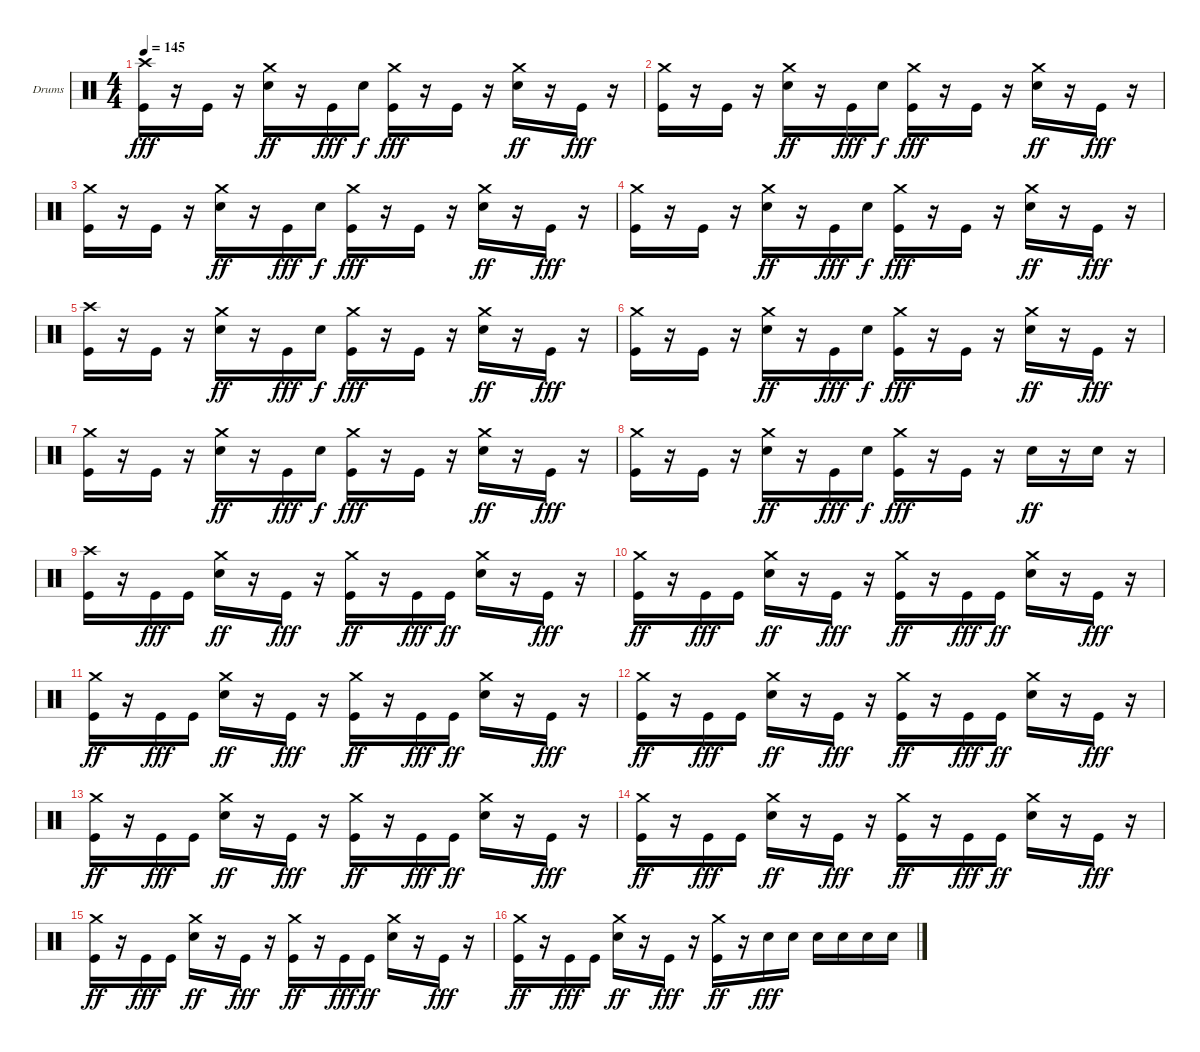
\defaultSystemsLayout 4
\bracketExtendMode groupsimilarinstruments
\firstSystemTrackNameOrientation horizontal
\otherSystemsTrackNameOrientation horizontal
\track ("Drumkit" "Drums") {instrument percussion}
\staff {score}
\articulation defaults
\ts (4 4)
\tempo 145
\clef neutral
\scale
0.333333
\ks c
("Kick (hit)" "Crash high (hit)").16{dy fff} r.16 "Kick (hit)".16 r.16 ("Snare (hit) 2" "Crash medium (hit)").16{dy ff} r.16 "Kick (hit)".16{dy fff} "Snare (hit) 2".16{dy f} ("Kick (hit)" "Crash medium (hit)").16{dy fff} r.16 "Kick (hit)".16 r.16 ("Snare (hit) 2" "Crash medium (hit)").16{dy ff} r.16 "Kick (hit)".16{dy fff} r.16 |
\scale
0.333333 ("Kick (hit)" "Crash medium (hit)").16 r.16 "Kick (hit)".16 r.16 ("Snare (hit) 2" "Crash medium (hit)").16{dy ff} r.16 "Kick (hit)".16{dy fff} "Snare (hit) 2".16{dy f} ("Kick (hit)" "Crash medium (hit)").16{dy fff} r.16 "Kick (hit)".16 r.16 ("Snare (hit) 2" "Crash medium (hit)").16{dy ff} r.16 "Kick (hit)".16{dy fff} r.16 |
\scale
0.333333 ("Kick (hit)" "Crash medium (hit)").16 r.16 "Kick (hit)".16 r.16 ("Snare (hit) 2" "Crash medium (hit)").16{dy ff} r.16 "Kick (hit)".16{dy fff} "Snare (hit) 2".16{dy f} ("Kick (hit)" "Crash medium (hit)").16{dy fff} r.16 "Kick (hit)".16 r.16 ("Snare (hit) 2" "Crash medium (hit)").16{dy ff} r.16 "Kick (hit)".16{dy fff} r.16 |
\scale
0.333333 ("Kick (hit)" "Crash medium (hit)").16 r.16 "Kick (hit)".16 r.16 ("Snare (hit) 2" "Crash medium (hit)").16{dy ff} r.16 "Kick (hit)".16{dy fff} "Snare (hit) 2".16{dy f} ("Kick (hit)" "Crash medium (hit)").16{dy fff} r.16 "Kick (hit)".16 r.16 ("Snare (hit) 2" "Crash medium (hit)").16{dy ff} r.16 "Kick (hit)".16{dy fff} r.16 |
\scale
0.333333 ("Kick (hit)" "Crash high (hit)").16 r.16 "Kick (hit)".16 r.16 ("Snare (hit) 2" "Crash medium (hit)").16{dy ff} r.16 "Kick (hit)".16{dy fff} "Snare (hit) 2".16{dy f} ("Kick (hit)" "Crash medium (hit)").16{dy fff} r.16 "Kick (hit)".16 r.16 ("Snare (hit) 2" "Crash medium (hit)").16{dy ff} r.16 "Kick (hit)".16{dy fff} r.16 |
\scale
0.333333 ("Kick (hit)" "Crash medium (hit)").16 r.16 "Kick (hit)".16 r.16 ("Snare (hit) 2" "Crash medium (hit)").16{dy ff} r.16 "Kick (hit)".16{dy fff} "Snare (hit) 2".16{dy f} ("Kick (hit)" "Crash medium (hit)").16{dy fff} r.16 "Kick (hit)".16 r.16 ("Snare (hit) 2" "Crash medium (hit)").16{dy ff} r.16 "Kick (hit)".16{dy fff} r.16 |
\scale
0.333333 ("Kick (hit)" "Crash medium (hit)").16 r.16 "Kick (hit)".16 r.16 ("Snare (hit) 2" "Crash medium (hit)").16{dy ff} r.16 "Kick (hit)".16{dy fff} "Snare (hit) 2".16{dy f} ("Kick (hit)" "Crash medium (hit)").16{dy fff} r.16 "Kick (hit)".16 r.16 ("Snare (hit) 2" "Crash medium (hit)").16{dy ff} r.16 "Kick (hit)".16{dy fff} r.16 |
\scale
0.333333 ("Kick (hit)" "Crash medium (hit)").16 r.16 "Kick (hit)".16 r.16 ("Snare (hit) 2" "Crash medium (hit)").16{dy ff} r.16 "Kick (hit)".16{dy fff} "Snare (hit) 2".16{dy f} ("Kick (hit)" "Crash medium (hit)").16{dy fff} r.16 "Kick (hit)".16 r.16 "Snare (hit) 2".16{dy ff} r.16 "Snare (hit) 2".16 r.16 |
\scale
0.333333 ("Crash high (hit)" "Kick (hit)").16 r.16 "Kick (hit)".16{dy fff} "Kick (hit)".16 ("Crash medium (hit)" "Snare (hit) 2").16{dy ff} r.16 "Kick (hit)".16{dy fff} r.16 ("Crash medium (hit)" "Kick (hit)").16{dy ff} r.16 "Kick (hit)".16{dy fff} "Kick (hit)".16{dy ff} ("Crash medium (hit)" "Snare (hit) 2").16 r.16 "Kick (hit)".16{dy fff} r.16 |
\scale
0.333333 ("Crash medium (hit)" "Kick (hit)").16{dy ff} r.16 "Kick (hit)".16{dy fff} "Kick (hit)".16 ("Crash medium (hit)" "Snare (hit) 2").16{dy ff} r.16 "Kick (hit)".16{dy fff} r.16 ("Crash medium (hit)" "Kick (hit)").16{dy ff} r.16 "Kick (hit)".16{dy fff} "Kick (hit)".16{dy ff} ("Crash medium (hit)" "Snare (hit) 2").16 r.16 "Kick (hit)".16{dy fff} r.16 |
\scale
0.333333 ("Crash medium (hit)" "Kick (hit)").16{dy ff} r.16 "Kick (hit)".16{dy fff} "Kick (hit)".16 ("Crash medium (hit)" "Snare (hit) 2").16{dy ff} r.16 "Kick (hit)".16{dy fff} r.16 ("Crash medium (hit)" "Kick (hit)").16{dy ff} r.16 "Kick (hit)".16{dy fff} "Kick (hit)".16{dy ff} ("Crash medium (hit)" "Snare (hit) 2").16 r.16 "Kick (hit)".16{dy fff} r.16 |
\scale
0.333333 ("Crash medium (hit)" "Kick (hit)").16{dy ff} r.16 "Kick (hit)".16{dy fff} "Kick (hit)".16 ("Crash medium (hit)" "Snare (hit) 2").16{dy ff} r.16 "Kick (hit)".16{dy fff} r.16 ("Crash medium (hit)" "Kick (hit)").16{dy ff} r.16 "Kick (hit)".16{dy fff} "Kick (hit)".16{dy ff} ("Crash medium (hit)" "Snare (hit) 2").16 r.16 "Kick (hit)".16{dy fff} r.16 |
\scale
0.333333 ("Crash medium (hit)" "Kick (hit)").16{dy ff} r.16 "Kick (hit)".16{dy fff} "Kick (hit)".16 ("Crash medium (hit)" "Snare (hit) 2").16{dy ff} r.16 "Kick (hit)".16{dy fff} r.16 ("Crash medium (hit)" "Kick (hit)").16{dy ff} r.16 "Kick (hit)".16{dy fff} "Kick (hit)".16{dy ff} ("Crash medium (hit)" "Snare (hit) 2").16 r.16 "Kick (hit)".16{dy fff} r.16 |
\scale
0.333333 ("Crash medium (hit)" "Kick (hit)").16{dy ff} r.16 "Kick (hit)".16{dy fff} "Kick (hit)".16 ("Crash medium (hit)" "Snare (hit) 2").16{dy ff} r.16 "Kick (hit)".16{dy fff} r.16 ("Crash medium (hit)" "Kick (hit)").16{dy ff} r.16 "Kick (hit)".16{dy fff} "Kick (hit)".16{dy ff} ("Crash medium (hit)" "Snare (hit) 2").16 r.16 "Kick (hit)".16{dy fff} r.16 |
\scale
0.333333 ("Crash medium (hit)" "Kick (hit)").16{dy ff} r.16 "Kick (hit)".16{dy fff} "Kick (hit)".16 ("Crash medium (hit)" "Snare (hit) 2").16{dy ff} r.16 "Kick (hit)".16{dy fff} r.16 ("Crash medium (hit)" "Kick (hit)").16{dy ff} r.16 "Kick (hit)".16{dy fff} "Kick (hit)".16{dy ff} ("Crash medium (hit)" "Snare (hit) 2").16 r.16 "Kick (hit)".16{dy fff} r.16 |
\scale
0.333333 ("Crash medium (hit)" "Kick (hit)").16{dy ff} r.16 "Kick (hit)".16{dy fff} "Kick (hit)".16 ("Crash medium (hit)" "Snare (hit) 2").16{dy ff} r.16 "Kick (hit)".16{dy fff} r.16 ("Crash medium (hit)" "Kick (hit)").16{dy ff} r.16 "Snare (hit) 2".16{dy fff} "Snare (hit) 2".16 "Snare (hit) 2".16 "Snare (hit) 2".16 "Snare (hit) 2".16 "Snare (hit) 2".16
